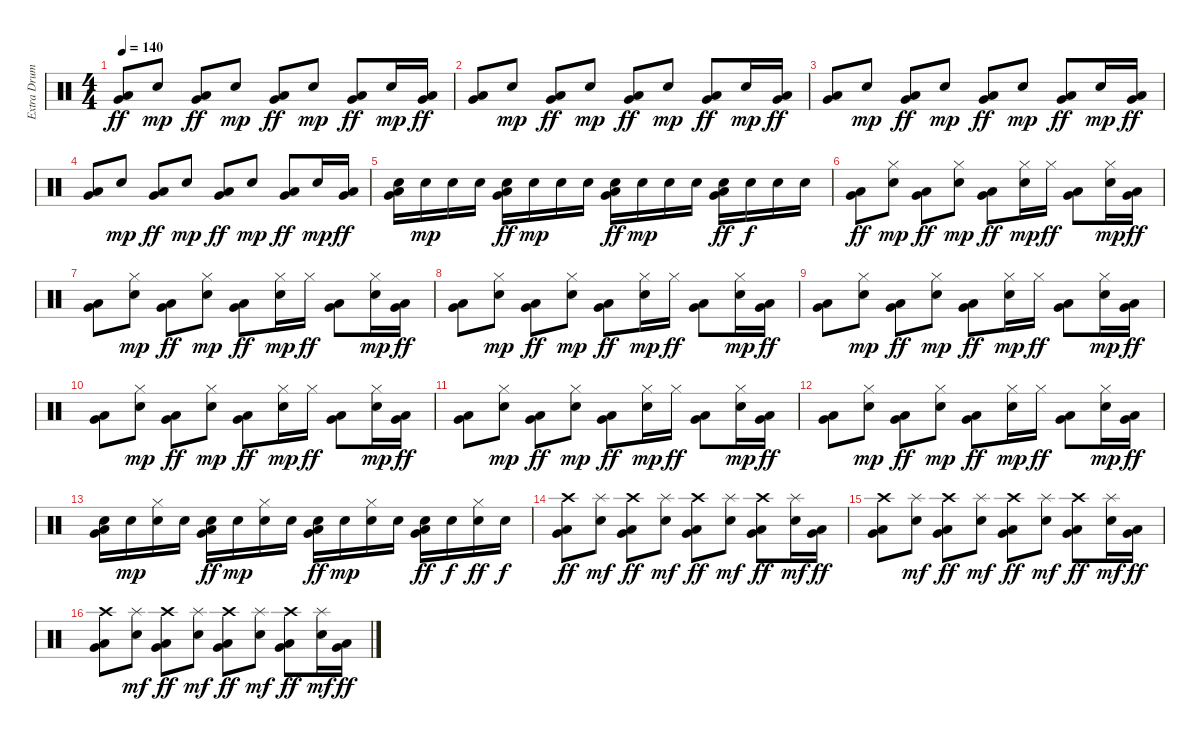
\track ("Extra Drums" "Extra Drum") {instrument percussion}
\staff {score}
\articulation defaults
\ts (4 4)
\tempo 140
\clef neutral
\ks c
("Low Floor Tom (hit)" "Very Low Tom (hit)").8{dy ff} "Snare (hit) 2".8{dy mp} ("Low Floor Tom (hit)" "Very Low Tom (hit)").8{dy ff} "Snare (hit) 2".8{dy mp} ("Low Floor Tom (hit)" "Very Low Tom (hit)").8{dy ff} "Snare (hit) 2".8{dy mp} ("Low Floor Tom (hit)" "Very Low Tom (hit)").8{dy ff} "Snare (hit) 2".16{dy mp} ("Low Floor Tom (hit)" "Very Low Tom (hit)").16{dy ff} |
("Low Floor Tom (hit)" "Very Low Tom (hit)").8 "Snare (hit) 2".8{dy mp} ("Low Floor Tom (hit)" "Very Low Tom (hit)").8{dy ff} "Snare (hit) 2".8{dy mp} ("Low Floor Tom (hit)" "Very Low Tom (hit)").8{dy ff} "Snare (hit) 2".8{dy mp} ("Low Floor Tom (hit)" "Very Low Tom (hit)").8{dy ff} "Snare (hit) 2".16{dy mp} ("Low Floor Tom (hit)" "Very Low Tom (hit)").16{dy ff} |
("Low Floor Tom (hit)" "Very Low Tom (hit)").8 "Snare (hit) 2".8{dy mp} ("Low Floor Tom (hit)" "Very Low Tom (hit)").8{dy ff} "Snare (hit) 2".8{dy mp} ("Low Floor Tom (hit)" "Very Low Tom (hit)").8{dy ff} "Snare (hit) 2".8{dy mp} ("Low Floor Tom (hit)" "Very Low Tom (hit)").8{dy ff} "Snare (hit) 2".16{dy mp} ("Low Floor Tom (hit)" "Very Low Tom (hit)").16{dy ff} |
("Low Floor Tom (hit)" "Very Low Tom (hit)").8 "Snare (hit) 2".8{dy mp} ("Low Floor Tom (hit)" "Very Low Tom (hit)").8{dy ff} "Snare (hit) 2".8{dy mp} ("Low Floor Tom (hit)" "Very Low Tom (hit)").8{dy ff} "Snare (hit) 2".8{dy mp} ("Low Floor Tom (hit)" "Very Low Tom (hit)").8{dy ff} "Snare (hit) 2".16{dy mp} ("Low Floor Tom (hit)" "Very Low Tom (hit)").16{dy ff} |
("Snare (hit) 2" "Low Floor Tom (hit)" "Very Low Tom (hit)").16 "Snare (hit) 2".16{dy mp} "Snare (hit) 2".16 "Snare (hit) 2".16 ("Snare (hit) 2" "Low Floor Tom (hit)" "Very Low Tom (hit)").16{dy ff} "Snare (hit) 2".16{dy mp} "Snare (hit) 2".16 "Snare (hit) 2".16 ("Snare (hit) 2" "Low Floor Tom (hit)" "Very Low Tom (hit)").16{dy ff} "Snare (hit) 2".16{dy mp} "Snare (hit) 2".16 "Snare (hit) 2".16 ("Snare (hit) 2" "Low Floor Tom (hit)" "Very Low Tom (hit)").16{dy ff} "Snare (hit) 2".16{dy f} "Snare (hit) 2".16 "Snare (hit) 2".16 |
("Low Floor Tom (hit)" "Very Low Tom (hit)").8{dy ff} ("Hi-Hat (closed)" "Snare (hit) 2").8{dy mp} ("Low Floor Tom (hit)" "Very Low Tom (hit)").8{dy ff} ("Hi-Hat (closed)" "Snare (hit) 2").8{dy mp} ("Low Floor Tom (hit)" "Very Low Tom (hit)").8{dy ff} ("Hi-Hat (closed)" "Snare (hit) 2").16{dy mp} "Hi-Hat (closed)".16{dy ff} ("Low Floor Tom (hit)" "Very Low Tom (hit)").8 ("Hi-Hat (closed)" "Snare (hit) 2").16{dy mp} ("Low Floor Tom (hit)" "Very Low Tom (hit)").16{dy ff} |
("Low Floor Tom (hit)" "Very Low Tom (hit)").8 ("Hi-Hat (closed)" "Snare (hit) 2").8{dy mp} ("Low Floor Tom (hit)" "Very Low Tom (hit)").8{dy ff} ("Hi-Hat (closed)" "Snare (hit) 2").8{dy mp} ("Low Floor Tom (hit)" "Very Low Tom (hit)").8{dy ff} ("Hi-Hat (closed)" "Snare (hit) 2").16{dy mp} "Hi-Hat (closed)".16{dy ff} ("Low Floor Tom (hit)" "Very Low Tom (hit)").8 ("Hi-Hat (closed)" "Snare (hit) 2").16{dy mp} ("Low Floor Tom (hit)" "Very Low Tom (hit)").16{dy ff} |
("Low Floor Tom (hit)" "Very Low Tom (hit)").8 ("Hi-Hat (closed)" "Snare (hit) 2").8{dy mp} ("Low Floor Tom (hit)" "Very Low Tom (hit)").8{dy ff} ("Hi-Hat (closed)" "Snare (hit) 2").8{dy mp} ("Low Floor Tom (hit)" "Very Low Tom (hit)").8{dy ff} ("Hi-Hat (closed)" "Snare (hit) 2").16{dy mp} "Hi-Hat (closed)".16{dy ff} ("Low Floor Tom (hit)" "Very Low Tom (hit)").8 ("Hi-Hat (closed)" "Snare (hit) 2").16{dy mp} ("Low Floor Tom (hit)" "Very Low Tom (hit)").16{dy ff} |
("Low Floor Tom (hit)" "Very Low Tom (hit)").8 ("Hi-Hat (closed)" "Snare (hit) 2").8{dy mp} ("Low Floor Tom (hit)" "Very Low Tom (hit)").8{dy ff} ("Hi-Hat (closed)" "Snare (hit) 2").8{dy mp} ("Low Floor Tom (hit)" "Very Low Tom (hit)").8{dy ff} ("Hi-Hat (closed)" "Snare (hit) 2").16{dy mp} "Hi-Hat (closed)".16{dy ff} ("Low Floor Tom (hit)" "Very Low Tom (hit)").8 ("Hi-Hat (closed)" "Snare (hit) 2").16{dy mp} ("Low Floor Tom (hit)" "Very Low Tom (hit)").16{dy ff} |
("Low Floor Tom (hit)" "Very Low Tom (hit)").8 ("Hi-Hat (closed)" "Snare (hit) 2").8{dy mp} ("Low Floor Tom (hit)" "Very Low Tom (hit)").8{dy ff} ("Hi-Hat (closed)" "Snare (hit) 2").8{dy mp} ("Low Floor Tom (hit)" "Very Low Tom (hit)").8{dy ff} ("Hi-Hat (closed)" "Snare (hit) 2").16{dy mp} "Hi-Hat (closed)".16{dy ff} ("Low Floor Tom (hit)" "Very Low Tom (hit)").8 ("Hi-Hat (closed)" "Snare (hit) 2").16{dy mp} ("Low Floor Tom (hit)" "Very Low Tom (hit)").16{dy ff} |
("Low Floor Tom (hit)" "Very Low Tom (hit)").8 ("Hi-Hat (closed)" "Snare (hit) 2").8{dy mp} ("Low Floor Tom (hit)" "Very Low Tom (hit)").8{dy ff} ("Hi-Hat (closed)" "Snare (hit) 2").8{dy mp} ("Low Floor Tom (hit)" "Very Low Tom (hit)").8{dy ff} ("Hi-Hat (closed)" "Snare (hit) 2").16{dy mp} "Hi-Hat (closed)".16{dy ff} ("Low Floor Tom (hit)" "Very Low Tom (hit)").8 ("Hi-Hat (closed)" "Snare (hit) 2").16{dy mp} ("Low Floor Tom (hit)" "Very Low Tom (hit)").16{dy ff} |
("Low Floor Tom (hit)" "Very Low Tom (hit)").8 ("Hi-Hat (closed)" "Snare (hit) 2").8{dy mp} ("Low Floor Tom (hit)" "Very Low Tom (hit)").8{dy ff} ("Hi-Hat (closed)" "Snare (hit) 2").8{dy mp} ("Low Floor Tom (hit)" "Very Low Tom (hit)").8{dy ff} ("Hi-Hat (closed)" "Snare (hit) 2").16{dy mp} "Hi-Hat (closed)".16{dy ff} ("Low Floor Tom (hit)" "Very Low Tom (hit)").8 ("Hi-Hat (closed)" "Snare (hit) 2").16{dy mp} ("Low Floor Tom (hit)" "Very Low Tom (hit)").16{dy ff} |
("Snare (hit) 2" "Low Floor Tom (hit)" "Very Low Tom (hit)").16 "Snare (hit) 2".16{dy mp} ("Hi-Hat (closed)" "Snare (hit) 2").16 "Snare (hit) 2".16 ("Snare (hit) 2" "Low Floor Tom (hit)" "Very Low Tom (hit)").16{dy ff} "Snare (hit) 2".16{dy mp} ("Hi-Hat (closed)" "Snare (hit) 2").16 "Snare (hit) 2".16 ("Snare (hit) 2" "Low Floor Tom (hit)" "Very Low Tom (hit)").16{dy ff} "Snare (hit) 2".16{dy mp} ("Hi-Hat (closed)" "Snare (hit) 2").16 "Snare (hit) 2".16 ("Snare (hit) 2" "Low Floor Tom (hit)" "Very Low Tom (hit)").16{dy ff} "Snare (hit) 2".16{dy f} ("Hi-Hat (closed)" "Snare (hit) 2").16{dy ff} "Snare (hit) 2".16{dy f} |
("Crash high (hit)" "Low Floor Tom (hit)" "Very Low Tom (hit)").8{dy ff} ("Splash (hit)" "Snare (hit) 2").8{dy mf} ("Crash high (hit)" "Low Floor Tom (hit)" "Very Low Tom (hit)").8{dy ff} ("Splash (hit)" "Snare (hit) 2").8{dy mf} ("Crash high (hit)" "Low Floor Tom (hit)" "Very Low Tom (hit)").8{dy ff} ("Splash (hit)" "Snare (hit) 2").8{dy mf} ("Crash high (hit)" "Low Floor Tom (hit)" "Very Low Tom (hit)").8{dy ff} ("Splash (hit)" "Snare (hit) 2").16{dy mf} ("Low Floor Tom (hit)" "Very Low Tom (hit)").16{dy ff} |
("Crash high (hit)" "Low Floor Tom (hit)" "Very Low Tom (hit)").8 ("Splash (hit)" "Snare (hit) 2").8{dy mf} ("Crash high (hit)" "Low Floor Tom (hit)" "Very Low Tom (hit)").8{dy ff} ("Splash (hit)" "Snare (hit) 2").8{dy mf} ("Crash high (hit)" "Low Floor Tom (hit)" "Very Low Tom (hit)").8{dy ff} ("Splash (hit)" "Snare (hit) 2").8{dy mf} ("Crash high (hit)" "Low Floor Tom (hit)" "Very Low Tom (hit)").8{dy ff} ("Splash (hit)" "Snare (hit) 2").16{dy mf} ("Low Floor Tom (hit)" "Very Low Tom (hit)").16{dy ff} |
("Crash high (hit)" "Low Floor Tom (hit)" "Very Low Tom (hit)").8 ("Splash (hit)" "Snare (hit) 2").8{dy mf} ("Crash high (hit)" "Low Floor Tom (hit)" "Very Low Tom (hit)").8{dy ff} ("Splash (hit)" "Snare (hit) 2").8{dy mf} ("Crash high (hit)" "Low Floor Tom (hit)" "Very Low Tom (hit)").8{dy ff} ("Splash (hit)" "Snare (hit) 2").8{dy mf} ("Crash high (hit)" "Low Floor Tom (hit)" "Very Low Tom (hit)").8{dy ff} ("Splash (hit)" "Snare (hit) 2").16{dy mf} ("Low Floor Tom (hit)" "Very Low Tom (hit)").16{dy ff}
